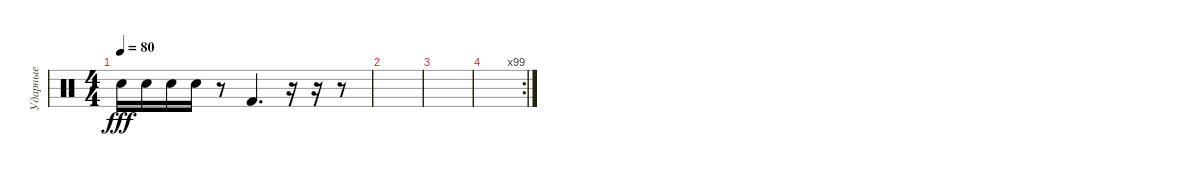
\track ("Ударные" "Ударные") {instrument percussion}
\staff {score}
\articulation defaults
\ts (4 4)
\tempo 80
\clef neutral
\ks c "Electric Snare (hit)".16{dy fff} "Electric Snare (hit)".16 "Electric Snare (hit)".16 "Electric Snare (hit)".16
r.8 "Kick (hit) 2".4{d} r.16 r.16 r.8 |
|
|
\rc 99
